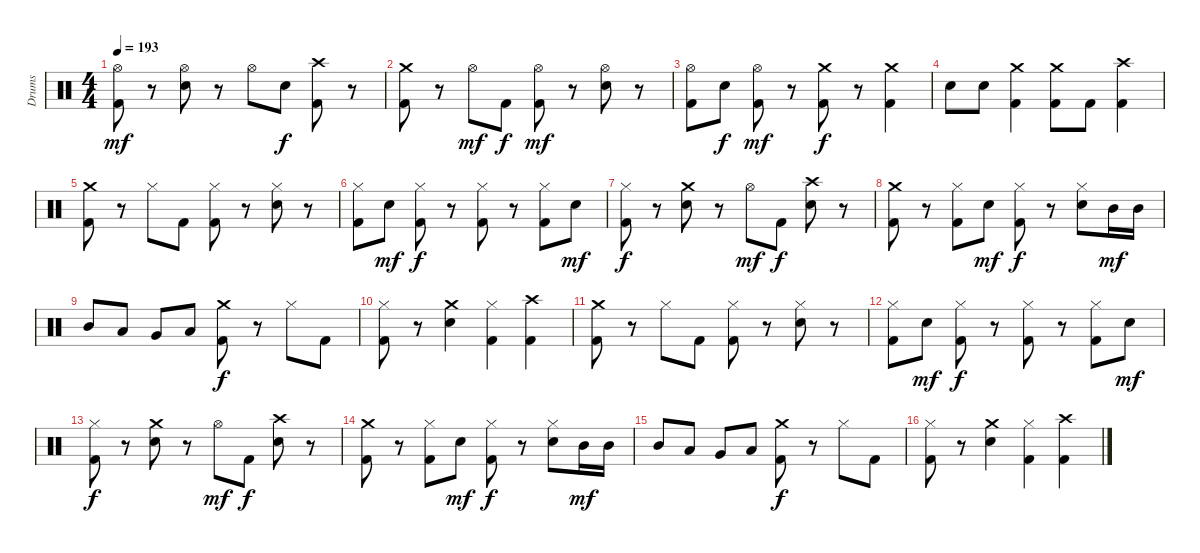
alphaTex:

\track ("Drums" "Drums") {instrument percussion}
\staff {score}
\articulation defaults
\ts (4 4)
\tempo 193
\clef neutral
\ks c
("Hi-Hat (open)" "Kick (hit) 2").8{dy mf} r.8 ("Hi-Hat (open)" "Snare (hit) 2").8 r.8 "Hi-Hat (open)".8 "Snare (hit) 2".8{dy f} ("Crash high (hit)" "Kick (hit) 2").8 r.8 |
("Crash medium (hit)" "Kick (hit) 2").8 r.8 "Hi-Hat (open)".8{dy mf} "Kick (hit) 2".8{dy f} ("Hi-Hat (open)" "Kick (hit) 2").8{dy mf} r.8 ("Hi-Hat (open)" "Snare (hit) 2").8 r.8 |
("Hi-Hat (open)" "Kick (hit) 2").8 "Snare (hit) 2".8{dy f} ("Hi-Hat (open)" "Kick (hit) 2").8{dy mf} r.8 ("Crash medium (hit)" "Kick (hit) 2").8{dy f} r.8 ("Crash medium (hit)" "Kick (hit) 2").4 |
"Snare (hit) 2".8 "Snare (hit) 2".8 ("Crash medium (hit)" "Kick (hit) 2").4 ("Crash medium (hit)" "Kick (hit) 2").8 "Kick (hit) 2".8 ("Crash high (hit)" "Kick (hit) 2").4 |
("Crash medium (hit)" "Kick (hit) 2").8 r.8 "Hi-Hat (closed)".8 "Kick (hit) 2".8 ("Hi-Hat (closed)" "Kick (hit) 2").8 r.8 ("Hi-Hat (closed)" "Snare (hit) 2").8 r.8 |
("Hi-Hat (closed)" "Kick (hit) 2").8 "Snare (hit) 2".8{dy mf} ("Hi-Hat (closed)" "Kick (hit) 2").8{dy f} r.8 ("Hi-Hat (closed)" "Kick (hit) 2").8 r.8 ("Hi-Hat (closed)" "Kick (hit) 2").8 "Snare (hit) 2".8{dy mf} |
("Hi-Hat (closed)" "Kick (hit) 2").8{dy f} r.8 ("Crash medium (hit)" "Snare (hit) 2").8 r.8 "Hi-Hat (open)".8{dy mf} "Kick (hit) 2".8{dy f} ("Crash high (hit)" "Snare (hit) 2").8 r.8 |
("Crash medium (hit)" "Kick (hit) 2").8 r.8 ("Hi-Hat (closed)" "Kick (hit) 2").8 "Snare (hit) 2".8{dy mf} ("Hi-Hat (closed)" "Kick (hit) 2").8{dy f} r.8 ("Hi-Hat (closed)" "Snare (hit) 2").8 "Mid Tom (hit)".16{dy mf} "Mid Tom (hit)".16 |
"Mid Tom (hit)".8 "Low Tom (hit)".8 "Very Low Tom (hit)".8 "Low Floor Tom (hit)".8 ("Crash medium (hit)" "Kick (hit) 2").8{dy f} r.8 "Hi-Hat (closed)".8 "Kick (hit) 2".8 |
("Hi-Hat (closed)" "Kick (hit) 2").8 r.8 ("Crash medium (hit)" "Snare (hit) 2").4 ("Hi-Hat (closed)" "Kick (hit) 2").4 ("Crash high (hit)" "Kick (hit) 2").4 |
("Crash medium (hit)" "Kick (hit) 2").8 r.8 "Hi-Hat (closed)".8 "Kick (hit) 2".8 ("Hi-Hat (closed)" "Kick (hit) 2").8 r.8 ("Hi-Hat (closed)" "Snare (hit) 2").8 r.8 |
("Hi-Hat (closed)" "Kick (hit) 2").8 "Snare (hit) 2".8{dy mf} ("Hi-Hat (closed)" "Kick (hit) 2").8{dy f} r.8 ("Hi-Hat (closed)" "Kick (hit) 2").8 r.8 ("Hi-Hat (closed)" "Kick (hit) 2").8 "Snare (hit) 2".8{dy mf} |
("Hi-Hat (closed)" "Kick (hit) 2").8{dy f} r.8 ("Crash medium (hit)" "Snare (hit) 2").8 r.8 "Hi-Hat (open)".8{dy mf} "Kick (hit) 2".8{dy f} ("Crash high (hit)" "Snare (hit) 2").8 r.8 |
("Crash medium (hit)" "Kick (hit) 2").8 r.8 ("Hi-Hat (closed)" "Kick (hit) 2").8 "Snare (hit) 2".8{dy mf} ("Hi-Hat (closed)" "Kick (hit) 2").8{dy f} r.8 ("Hi-Hat (closed)" "Snare (hit) 2").8 "Mid Tom (hit)".16{dy mf} "Mid Tom (hit)".16 |
"Mid Tom (hit)".8 "Low Tom (hit)".8 "Very Low Tom (hit)".8 "Low Floor Tom (hit)".8 ("Crash medium (hit)" "Kick (hit) 2").8{dy f} r.8 "Hi-Hat (closed)".8 "Kick (hit) 2".8 |
("Hi-Hat (closed)" "Kick (hit) 2").8 r.8 ("Crash medium (hit)" "Snare (hit) 2").4 ("Hi-Hat (closed)" "Kick (hit) 2").4 ("Crash high (hit)" "Kick (hit) 2").4
